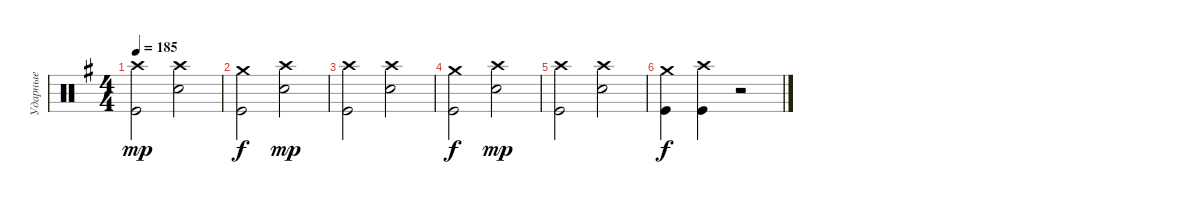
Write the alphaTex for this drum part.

\track ("Ударные" "Ударные") {instrument percussion}
\staff {score}
\articulation defaults
\ts (4 4)
\tempo 185
\clef neutral
\ks eminor
("Crash high (hit)" "Kick (hit)").2{dy mp} ("Crash high (hit)" "Snare (hit) 2").2 |
("Kick (hit)" "Crash medium (hit)").2{dy f} ("Crash high (hit)" "Snare (hit) 2").2{dy mp} |
("Crash high (hit)" "Kick (hit)").2 ("Crash high (hit)" "Snare (hit) 2").2 |
("Kick (hit)" "Crash medium (hit)").2{dy f} ("Crash high (hit)" "Snare (hit) 2").2{dy mp} |
("Crash high (hit)" "Kick (hit)").2 ("Crash high (hit)" "Snare (hit) 2").2 |
("Kick (hit)" "Crash medium (hit)").4{dy f} ("Kick (hit)" "Crash high (hit)").4 r.2
